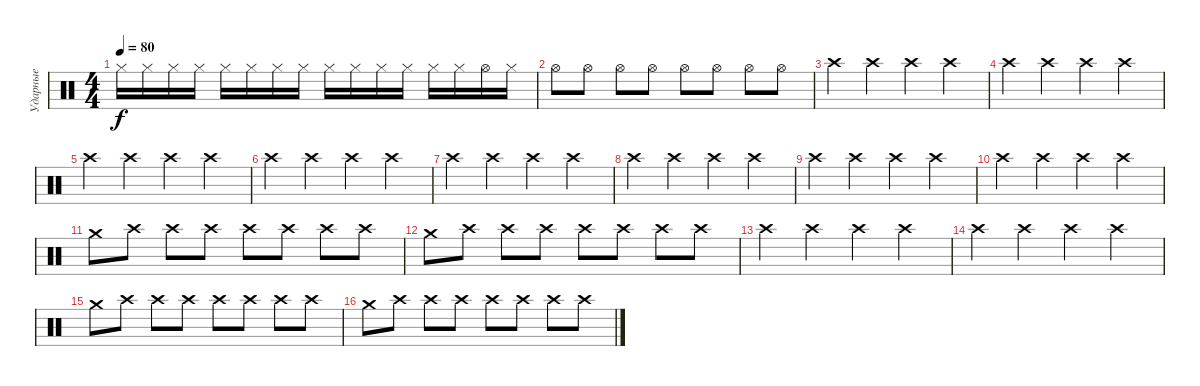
\track ("Ударные" "Ударные") {instrument percussion}
\staff {score}
\articulation defaults
\ts (4 4)
\tempo 80
\clef neutral
\ks c "Hi-Hat (closed)".16{dy f} "Hi-Hat (closed)".16 "Hi-Hat (closed)".16 "Hi-Hat (closed)".16 "Hi-Hat (closed)".16 "Hi-Hat (closed)".16 "Hi-Hat (closed)".16 "Hi-Hat (closed)".16 "Hi-Hat (closed)".16 "Hi-Hat (closed)".16 "Hi-Hat (closed)".16 "Hi-Hat (closed)".16 "Hi-Hat (closed)".16 "Hi-Hat (closed)".16 "Hi-Hat (open)".16 "Hi-Hat (closed)".16
|
"Hi-Hat (open)".8 "Hi-Hat (open)".8 "Hi-Hat (open)".8 "Hi-Hat (open)".8 "Hi-Hat (open)".8 "Hi-Hat (open)".8 "Hi-Hat (open)".8 "Hi-Hat (open)".8 |
"Crash high (hit)".4 "Crash high (hit)".4 "Crash high (hit)".4 "Crash high (hit)".4 |
"Crash high (hit)".4 "Crash high (hit)".4 "Crash high (hit)".4 "Crash high (hit)".4 |
"Crash high (hit)".4 "Crash high (hit)".4 "Crash high (hit)".4 "Crash high (hit)".4 |
"Crash high (hit)".4 "Crash high (hit)".4 "Crash high (hit)".4 "Crash high (hit)".4 |
"Crash high (hit)".4 "Crash high (hit)".4 "Crash high (hit)".4 "Crash high (hit)".4 |
"Crash high (hit)".4 "Crash high (hit)".4 "Crash high (hit)".4 "Crash high (hit)".4 |
"Crash high (hit)".4 "Crash high (hit)".4 "Crash high (hit)".4 "Crash high (hit)".4 |
"Crash high (hit)".4 "Crash high (hit)".4 "Crash high (hit)".4 "Crash high (hit)".4 |
"Crash medium (hit)".8 "Crash high (hit)".8 "Crash high (hit)".8 "Crash high (hit)".8 "Crash high (hit)".8 "Crash high (hit)".8 "Crash high (hit)".8 "Crash high (hit)".8 |
"Crash medium (hit)".8 "Crash high (hit)".8 "Crash high (hit)".8 "Crash high (hit)".8 "Crash high (hit)".8 "Crash high (hit)".8 "Crash high (hit)".8 "Crash high (hit)".8 |
"Crash high (hit)".4 "Crash high (hit)".4 "Crash high (hit)".4 "Crash high (hit)".4 |
"Crash high (hit)".4 "Crash high (hit)".4 "Crash high (hit)".4 "Crash high (hit)".4 |
"Crash medium (hit)".8 "Crash high (hit)".8 "Crash high (hit)".8 "Crash high (hit)".8 "Crash high (hit)".8 "Crash high (hit)".8 "Crash high (hit)".8 "Crash high (hit)".8 |
"Crash medium (hit)".8 "Crash high (hit)".8 "Crash high (hit)".8 "Crash high (hit)".8 "Crash high (hit)".8 "Crash high (hit)".8 "Crash high (hit)".8 "Crash high (hit)".8
